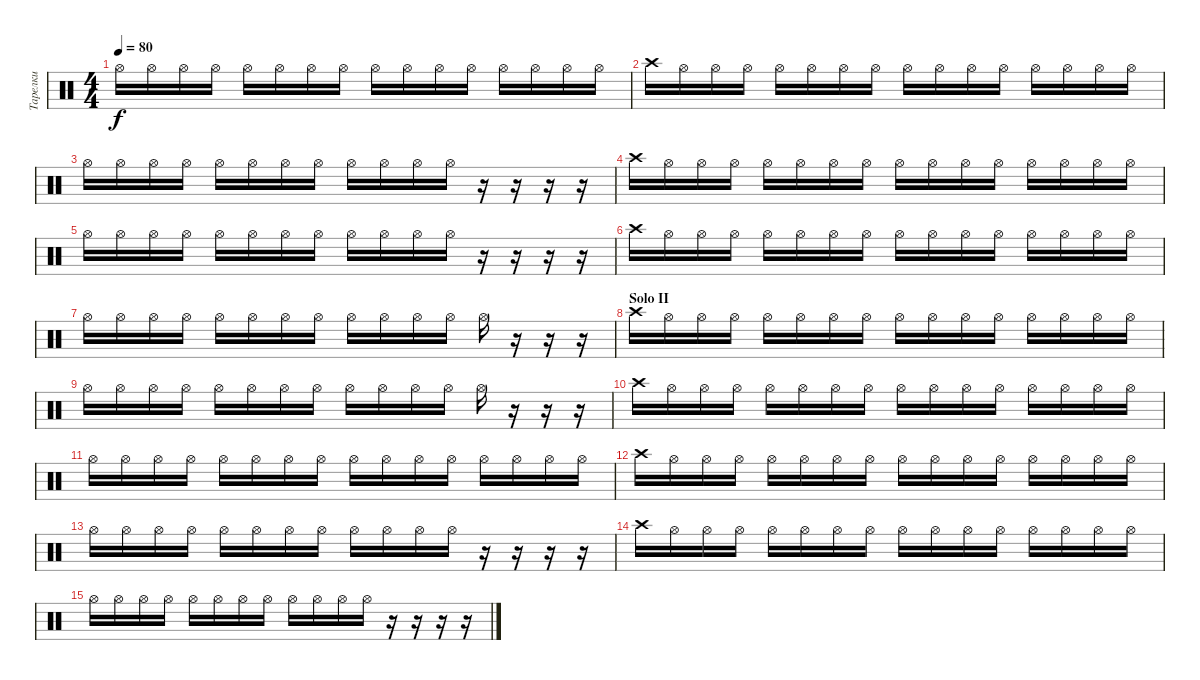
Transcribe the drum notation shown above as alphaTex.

\track ("Тарелки" "Тарелки") {instrument percussion}
\staff {score}
\articulation defaults
\ts (4 4)
\tempo 80
\clef neutral
\ks c "Hi-Hat (open)".16{dy f} "Hi-Hat (open)".16 "Hi-Hat (open)".16 "Hi-Hat (open)".16 "Hi-Hat (open)".16 "Hi-Hat (open)".16 "Hi-Hat (open)".16 "Hi-Hat (open)".16 "Hi-Hat (open)".16 "Hi-Hat (open)".16 "Hi-Hat (open)".16 "Hi-Hat (open)".16 "Hi-Hat (open)".16 "Hi-Hat (open)".16 "Hi-Hat (open)".16 "Hi-Hat (open)".16
|
"Crash high (hit)".16 "Hi-Hat (open)".16 "Hi-Hat (open)".16 "Hi-Hat (open)".16 "Hi-Hat (open)".16 "Hi-Hat (open)".16 "Hi-Hat (open)".16 "Hi-Hat (open)".16 "Hi-Hat (open)".16 "Hi-Hat (open)".16 "Hi-Hat (open)".16 "Hi-Hat (open)".16 "Hi-Hat (open)".16 "Hi-Hat (open)".16 "Hi-Hat (open)".16 "Hi-Hat (open)".16 |
"Hi-Hat (open)".16 "Hi-Hat (open)".16 "Hi-Hat (open)".16 "Hi-Hat (open)".16 "Hi-Hat (open)".16 "Hi-Hat (open)".16 "Hi-Hat (open)".16 "Hi-Hat (open)".16 "Hi-Hat (open)".16 "Hi-Hat (open)".16 "Hi-Hat (open)".16 "Hi-Hat (open)".16 r.16 r.16 r.16 r.16 |
"Crash high (hit)".16 "Hi-Hat (open)".16 "Hi-Hat (open)".16 "Hi-Hat (open)".16 "Hi-Hat (open)".16 "Hi-Hat (open)".16 "Hi-Hat (open)".16 "Hi-Hat (open)".16 "Hi-Hat (open)".16 "Hi-Hat (open)".16 "Hi-Hat (open)".16 "Hi-Hat (open)".16 "Hi-Hat (open)".16 "Hi-Hat (open)".16 "Hi-Hat (open)".16 "Hi-Hat (open)".16 |
"Hi-Hat (open)".16 "Hi-Hat (open)".16 "Hi-Hat (open)".16 "Hi-Hat (open)".16 "Hi-Hat (open)".16 "Hi-Hat (open)".16 "Hi-Hat (open)".16 "Hi-Hat (open)".16 "Hi-Hat (open)".16 "Hi-Hat (open)".16 "Hi-Hat (open)".16 "Hi-Hat (open)".16 r.16 r.16 r.16 r.16 |
"Crash high (hit)".16 "Hi-Hat (open)".16 "Hi-Hat (open)".16 "Hi-Hat (open)".16 "Hi-Hat (open)".16 "Hi-Hat (open)".16 "Hi-Hat (open)".16 "Hi-Hat (open)".16 "Hi-Hat (open)".16 "Hi-Hat (open)".16 "Hi-Hat (open)".16 "Hi-Hat (open)".16 "Hi-Hat (open)".16 "Hi-Hat (open)".16 "Hi-Hat (open)".16 "Hi-Hat (open)".16 |
"Hi-Hat (open)".16 "Hi-Hat (open)".16 "Hi-Hat (open)".16 "Hi-Hat (open)".16 "Hi-Hat (open)".16 "Hi-Hat (open)".16 "Hi-Hat (open)".16 "Hi-Hat (open)".16 "Hi-Hat (open)".16 "Hi-Hat (open)".16 "Hi-Hat (open)".16 "Hi-Hat (open)".16 "Hi-Hat (open)".16 r.16 r.16 r.16 |
\section ("" "Solo II")
"Crash high (hit)".16 "Hi-Hat (open)".16 "Hi-Hat (open)".16 "Hi-Hat (open)".16 "Hi-Hat (open)".16 "Hi-Hat (open)".16 "Hi-Hat (open)".16 "Hi-Hat (open)".16 "Hi-Hat (open)".16 "Hi-Hat (open)".16 "Hi-Hat (open)".16 "Hi-Hat (open)".16 "Hi-Hat (open)".16 "Hi-Hat (open)".16 "Hi-Hat (open)".16 "Hi-Hat (open)".16 |
"Hi-Hat (open)".16 "Hi-Hat (open)".16 "Hi-Hat (open)".16 "Hi-Hat (open)".16 "Hi-Hat (open)".16 "Hi-Hat (open)".16 "Hi-Hat (open)".16 "Hi-Hat (open)".16 "Hi-Hat (open)".16 "Hi-Hat (open)".16 "Hi-Hat (open)".16 "Hi-Hat (open)".16 "Hi-Hat (open)".16 r.16 r.16 r.16 |
"Crash high (hit)".16 "Hi-Hat (open)".16 "Hi-Hat (open)".16 "Hi-Hat (open)".16 "Hi-Hat (open)".16 "Hi-Hat (open)".16 "Hi-Hat (open)".16 "Hi-Hat (open)".16 "Hi-Hat (open)".16 "Hi-Hat (open)".16 "Hi-Hat (open)".16 "Hi-Hat (open)".16 "Hi-Hat (open)".16 "Hi-Hat (open)".16 "Hi-Hat (open)".16 "Hi-Hat (open)".16 |
"Hi-Hat (open)".16 "Hi-Hat (open)".16 "Hi-Hat (open)".16 "Hi-Hat (open)".16 "Hi-Hat (open)".16 "Hi-Hat (open)".16 "Hi-Hat (open)".16 "Hi-Hat (open)".16 "Hi-Hat (open)".16 "Hi-Hat (open)".16 "Hi-Hat (open)".16 "Hi-Hat (open)".16 "Hi-Hat (open)".16 "Hi-Hat (open)".16 "Hi-Hat (open)".16 "Hi-Hat (open)".16 |
"Crash high (hit)".16 "Hi-Hat (open)".16 "Hi-Hat (open)".16 "Hi-Hat (open)".16 "Hi-Hat (open)".16 "Hi-Hat (open)".16 "Hi-Hat (open)".16 "Hi-Hat (open)".16 "Hi-Hat (open)".16 "Hi-Hat (open)".16 "Hi-Hat (open)".16 "Hi-Hat (open)".16 "Hi-Hat (open)".16 "Hi-Hat (open)".16 "Hi-Hat (open)".16 "Hi-Hat (open)".16 |
"Hi-Hat (open)".16 "Hi-Hat (open)".16 "Hi-Hat (open)".16 "Hi-Hat (open)".16 "Hi-Hat (open)".16 "Hi-Hat (open)".16 "Hi-Hat (open)".16 "Hi-Hat (open)".16 "Hi-Hat (open)".16 "Hi-Hat (open)".16 "Hi-Hat (open)".16 "Hi-Hat (open)".16 r.16 r.16 r.16 r.16 |
"Crash high (hit)".16 "Hi-Hat (open)".16 "Hi-Hat (open)".16 "Hi-Hat (open)".16 "Hi-Hat (open)".16 "Hi-Hat (open)".16 "Hi-Hat (open)".16 "Hi-Hat (open)".16 "Hi-Hat (open)".16 "Hi-Hat (open)".16 "Hi-Hat (open)".16 "Hi-Hat (open)".16 "Hi-Hat (open)".16 "Hi-Hat (open)".16 "Hi-Hat (open)".16 "Hi-Hat (open)".16 |
"Hi-Hat (open)".16 "Hi-Hat (open)".16 "Hi-Hat (open)".16 "Hi-Hat (open)".16 "Hi-Hat (open)".16 "Hi-Hat (open)".16 "Hi-Hat (open)".16 "Hi-Hat (open)".16 "Hi-Hat (open)".16 "Hi-Hat (open)".16 "Hi-Hat (open)".16 "Hi-Hat (open)".16 r.16 r.16 r.16 r.16
